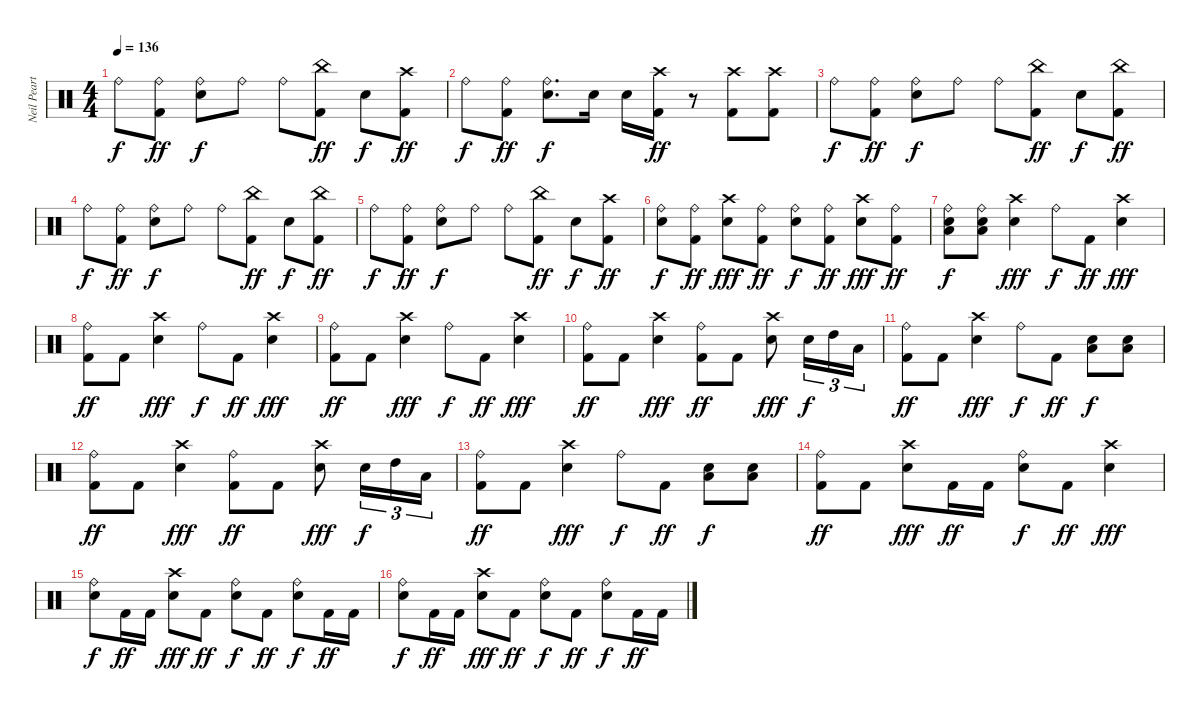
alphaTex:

\track ("Neil Peart" "Neil Peart") {instrument percussion}
\staff {score}
\articulation defaults
\ts (4 4)
\tempo 136
\clef neutral
\ks c "Ride (bell)".8{dy f}
("Ride (bell)" "Kick (hit) 2").8{dy ff} ("Ride (bell)" "Snare (hit) 2").8{dy f} "Ride (bell)".8 "Ride (bell)".8 ("China (hit)" "Kick (hit) 2").8{dy ff} "Snare (hit) 2".8{dy f} ("Crash high (hit)" "Kick (hit) 2").8{dy ff} |
"Ride (bell)".8{dy f} ("Ride (bell)" "Kick (hit) 2").8{dy ff} ("Ride (bell)" "Snare (hit) 2").8{d dy f} "Snare (hit) 2".16 "Snare (hit) 2".16 ("Crash high (hit)" "Kick (hit) 2").16{dy ff} r.8 ("Crash high (hit)" "Kick (hit) 2").8 ("Crash high (hit)" "Kick (hit) 2").8 |
"Ride (bell)".8{dy f} ("Ride (bell)" "Kick (hit) 2").8{dy ff} ("Ride (bell)" "Snare (hit) 2").8{dy f} "Ride (bell)".8 "Ride (bell)".8 ("China (hit)" "Kick (hit) 2").8{dy ff} "Snare (hit) 2".8{dy f} ("China (hit)" "Kick (hit) 2").8{dy ff} |
"Ride (bell)".8{dy f} ("Ride (bell)" "Kick (hit) 2").8{dy ff} ("Ride (bell)" "Snare (hit) 2").8{dy f} "Ride (bell)".8 "Ride (bell)".8 ("China (hit)" "Kick (hit) 2").8{dy ff} "Snare (hit) 2".8{dy f} ("China (hit)" "Kick (hit) 2").8{dy ff} |
"Ride (bell)".8{dy f} ("Ride (bell)" "Kick (hit) 2").8{dy ff} ("Ride (bell)" "Snare (hit) 2").8{dy f} "Ride (bell)".8 "Ride (bell)".8 ("China (hit)" "Kick (hit) 2").8{dy ff} "Snare (hit) 2".8{dy f} ("Crash high (hit)" "Kick (hit) 2").8{dy ff} |
("Ride (bell)" "Snare (hit) 2").8{dy f} ("Ride (bell)" "Kick (hit) 2").8{dy ff} ("Crash high (hit)" "Snare (hit) 2").8{dy fff} ("Ride (bell)" "Kick (hit) 2").8{dy ff} ("Ride (bell)" "Snare (hit) 2").8{dy f} ("Ride (bell)" "Kick (hit) 2").8{dy ff} ("Crash high (hit)" "Snare (hit) 2").8{dy fff} ("Ride (bell)" "Kick (hit) 2").8{dy ff} |
("Ride (bell)" "Snare (hit) 2" "Low Tom (hit)").8{dy f} ("Ride (bell)" "Snare (hit) 2" "Low Tom (hit)").8 ("Crash high (hit)" "Snare (hit) 2").4{dy fff} "Ride (bell)".8{dy f} "Kick (hit) 2".8{dy ff} ("Crash high (hit)" "Snare (hit) 2").4{dy fff} |
("Ride (bell)" "Kick (hit) 2").8{dy ff} "Kick (hit) 2".8 ("Crash high (hit)" "Snare (hit) 2").4{dy fff} "Ride (bell)".8{dy f} "Kick (hit) 2".8{dy ff} ("Crash high (hit)" "Snare (hit) 2").4{dy fff} |
("Ride (bell)" "Kick (hit) 2").8{dy ff} "Kick (hit) 2".8 ("Crash high (hit)" "Snare (hit) 2").4{dy fff} "Ride (bell)".8{dy f} "Kick (hit) 2".8{dy ff} ("Crash high (hit)" "Snare (hit) 2").4{dy fff} |
("Ride (bell)" "Kick (hit) 2").8{dy ff} "Kick (hit) 2".8 ("Crash high (hit)" "Snare (hit) 2").4{dy fff} ("Ride (bell)" "Kick (hit) 2").8{dy ff} "Kick (hit) 2".8 ("Crash high (hit)" "Snare (hit) 2").8{dy fff} "Snare (hit) 2".16{tu (3 2) dy f} "High Tom (hit)".16{tu (3 2)} "Low Floor Tom (hit)".16{tu (3 2)} |
("Ride (bell)" "Kick (hit) 2").8{dy ff} "Kick (hit) 2".8 ("Crash high (hit)" "Snare (hit) 2").4{dy fff} "Ride (bell)".8{dy f} "Kick (hit) 2".8{dy ff} ("Snare (hit) 2" "Low Tom (hit)").8{dy f} ("Snare (hit) 2" "Low Tom (hit)").8 |
("Ride (bell)" "Kick (hit) 2").8{dy ff} "Kick (hit) 2".8 ("Crash high (hit)" "Snare (hit) 2").4{dy fff} ("Ride (bell)" "Kick (hit) 2").8{dy ff} "Kick (hit) 2".8 ("Crash high (hit)" "Snare (hit) 2").8{dy fff} "Snare (hit) 2".16{tu (3 2) dy f} "High Tom (hit)".16{tu (3 2)} "Low Floor Tom (hit)".16{tu (3 2)} |
("Ride (bell)" "Kick (hit) 2").8{dy ff} "Kick (hit) 2".8 ("Crash high (hit)" "Snare (hit) 2").4{dy fff} "Ride (bell)".8{dy f} "Kick (hit) 2".8{dy ff} ("Snare (hit) 2" "Low Tom (hit)").8{dy f} ("Snare (hit) 2" "Low Tom (hit)").8 |
("Ride (bell)" "Kick (hit) 2").8{dy ff} "Kick (hit) 2".8 ("Crash high (hit)" "Snare (hit) 2").8{dy fff} "Kick (hit) 2".16{dy ff} "Kick (hit) 2".16 ("Ride (bell)" "Snare (hit) 2").8{dy f} "Kick (hit) 2".8{dy ff} ("Crash high (hit)" "Snare (hit) 2").4{dy fff} |
("Ride (bell)" "Snare (hit) 2").8{dy f} "Kick (hit) 2".16{dy ff} "Kick (hit) 2".16 ("Crash high (hit)" "Snare (hit) 2").8{dy fff} "Kick (hit) 2".8{dy ff} ("Ride (bell)" "Snare (hit) 2").8{dy f} "Kick (hit) 2".8{dy ff} ("Ride (bell)" "Snare (hit) 2").8{dy f} "Kick (hit) 2".16{dy ff} "Kick (hit) 2".16 |
("Ride (bell)" "Snare (hit) 2").8{dy f} "Kick (hit) 2".16{dy ff} "Kick (hit) 2".16 ("Crash high (hit)" "Snare (hit) 2").8{dy fff} "Kick (hit) 2".8{dy ff} ("Ride (bell)" "Snare (hit) 2").8{dy f} "Kick (hit) 2".8{dy ff} ("Ride (bell)" "Snare (hit) 2").8{dy f} "Kick (hit) 2".16{dy ff} "Kick (hit) 2".16
